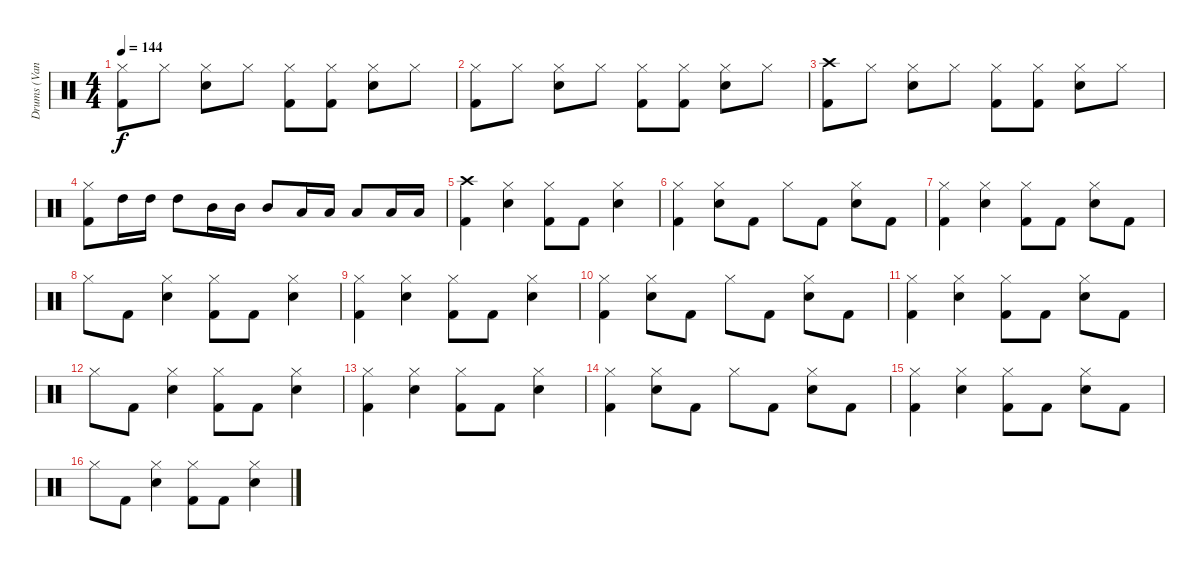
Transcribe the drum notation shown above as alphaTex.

\track ("Drums (Vandel)" "Drums (Van") {instrument percussion}
\staff {score}
\articulation defaults
\ts (4 4)
\tempo 144
\clef neutral
\ks c
("Hi-Hat (closed)" "Kick (hit) 2").8{dy f} "Hi-Hat (closed)".8 ("Hi-Hat (closed)" "Snare (hit) 2").8 "Hi-Hat (closed)".8 ("Hi-Hat (closed)" "Kick (hit) 2").8 ("Hi-Hat (closed)" "Kick (hit) 2").8 ("Hi-Hat (closed)" "Snare (hit) 2").8 "Hi-Hat (closed)".8 |
("Hi-Hat (closed)" "Kick (hit) 2").8 "Hi-Hat (closed)".8 ("Hi-Hat (closed)" "Snare (hit) 2").8 "Hi-Hat (closed)".8 ("Hi-Hat (closed)" "Kick (hit) 2").8 ("Hi-Hat (closed)" "Kick (hit) 2").8 ("Hi-Hat (closed)" "Snare (hit) 2").8 "Hi-Hat (closed)".8 |
("Crash high (hit)" "Kick (hit) 2").8 "Hi-Hat (closed)".8 ("Hi-Hat (closed)" "Snare (hit) 2").8 "Hi-Hat (closed)".8 ("Hi-Hat (closed)" "Kick (hit) 2").8 ("Hi-Hat (closed)" "Kick (hit) 2").8 ("Hi-Hat (closed)" "Snare (hit) 2").8 "Hi-Hat (closed)".8 |
("Hi-Hat (closed)" "Kick (hit) 2").8 "High Tom (hit)".16 "High Tom (hit)".16 "High Tom (hit)".8 "Mid Tom (hit)".16 "Mid Tom (hit)".16 "Mid Tom (hit)".8 "Low Tom (hit)".16 "Low Tom (hit)".16 "Low Tom (hit)".8 "Low Floor Tom (hit)".16 "Low Floor Tom (hit)".16 |
("Crash high (hit)" "Kick (hit) 2").4 ("Hi-Hat (closed)" "Snare (hit) 2").4 ("Hi-Hat (closed)" "Kick (hit) 2").8 "Kick (hit) 2".8 ("Hi-Hat (closed)" "Snare (hit) 2").4 |
("Hi-Hat (closed)" "Kick (hit) 2").4 ("Hi-Hat (closed)" "Snare (hit) 2").8 "Kick (hit) 2".8 "Hi-Hat (closed)".8 "Kick (hit) 2".8 ("Hi-Hat (closed)" "Snare (hit) 2").8 "Kick (hit) 2".8 |
("Hi-Hat (closed)" "Kick (hit) 2").4 ("Hi-Hat (closed)" "Snare (hit) 2").4 ("Hi-Hat (closed)" "Kick (hit) 2").8 "Kick (hit) 2".8 ("Hi-Hat (closed)" "Snare (hit) 2").8 "Kick (hit) 2".8 |
"Hi-Hat (closed)".8 "Kick (hit) 2".8 ("Hi-Hat (closed)" "Snare (hit) 2").4 ("Hi-Hat (closed)" "Kick (hit) 2").8 "Kick (hit) 2".8 ("Hi-Hat (closed)" "Snare (hit) 2").4 |
("Hi-Hat (closed)" "Kick (hit) 2").4 ("Hi-Hat (closed)" "Snare (hit) 2").4 ("Hi-Hat (closed)" "Kick (hit) 2").8 "Kick (hit) 2".8 ("Hi-Hat (closed)" "Snare (hit) 2").4 |
("Hi-Hat (closed)" "Kick (hit) 2").4 ("Hi-Hat (closed)" "Snare (hit) 2").8 "Kick (hit) 2".8 "Hi-Hat (closed)".8 "Kick (hit) 2".8 ("Hi-Hat (closed)" "Snare (hit) 2").8 "Kick (hit) 2".8 |
("Hi-Hat (closed)" "Kick (hit) 2").4 ("Hi-Hat (closed)" "Snare (hit) 2").4 ("Hi-Hat (closed)" "Kick (hit) 2").8 "Kick (hit) 2".8 ("Hi-Hat (closed)" "Snare (hit) 2").8 "Kick (hit) 2".8 |
"Hi-Hat (closed)".8 "Kick (hit) 2".8 ("Hi-Hat (closed)" "Snare (hit) 2").4 ("Hi-Hat (closed)" "Kick (hit) 2").8 "Kick (hit) 2".8 ("Hi-Hat (closed)" "Snare (hit) 2").4 |
("Hi-Hat (closed)" "Kick (hit) 2").4 ("Hi-Hat (closed)" "Snare (hit) 2").4 ("Hi-Hat (closed)" "Kick (hit) 2").8 "Kick (hit) 2".8 ("Hi-Hat (closed)" "Snare (hit) 2").4 |
("Hi-Hat (closed)" "Kick (hit) 2").4 ("Hi-Hat (closed)" "Snare (hit) 2").8 "Kick (hit) 2".8 "Hi-Hat (closed)".8 "Kick (hit) 2".8 ("Hi-Hat (closed)" "Snare (hit) 2").8 "Kick (hit) 2".8 |
("Hi-Hat (closed)" "Kick (hit) 2").4 ("Hi-Hat (closed)" "Snare (hit) 2").4 ("Hi-Hat (closed)" "Kick (hit) 2").8 "Kick (hit) 2".8 ("Hi-Hat (closed)" "Snare (hit) 2").8 "Kick (hit) 2".8 |
"Hi-Hat (closed)".8 "Kick (hit) 2".8 ("Hi-Hat (closed)" "Snare (hit) 2").4 ("Hi-Hat (closed)" "Kick (hit) 2").8 "Kick (hit) 2".8 ("Hi-Hat (closed)" "Snare (hit) 2").4
